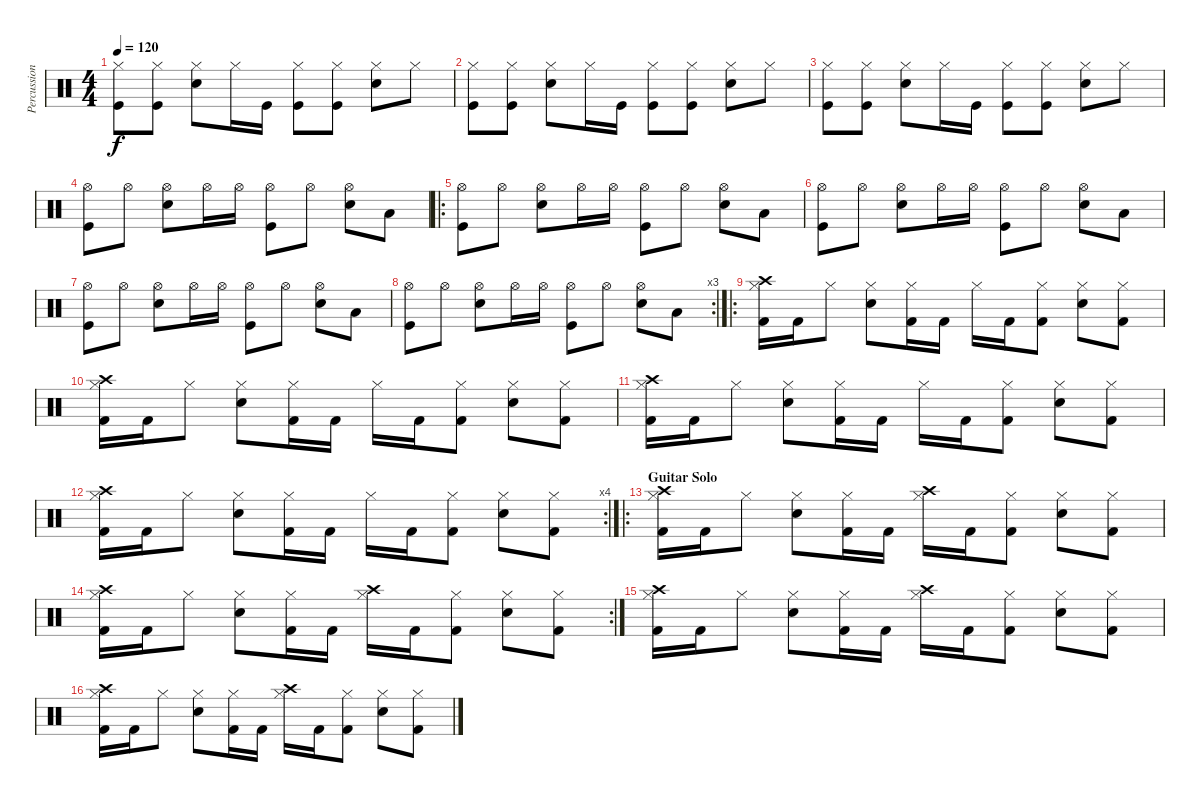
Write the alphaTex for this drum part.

\track ("Percussion" "Percussion") {instrument percussion}
\staff {score}
\articulation defaults
\ts (4 4)
\tempo 120
\clef neutral
\ks c
("Hi-Hat (closed)" "Kick (hit)").8{dy f} ("Hi-Hat (closed)" "Kick (hit)").8 ("Hi-Hat (closed)" "Snare (hit) 2").8 "Hi-Hat (closed)".16 "Kick (hit)".16 ("Hi-Hat (closed)" "Kick (hit)").8 ("Hi-Hat (closed)" "Kick (hit)").8 ("Hi-Hat (closed)" "Snare (hit) 2").8 "Hi-Hat (closed)".8 |
("Hi-Hat (closed)" "Kick (hit)").8 ("Hi-Hat (closed)" "Kick (hit)").8 ("Hi-Hat (closed)" "Snare (hit) 2").8 "Hi-Hat (closed)".16 "Kick (hit)".16 ("Hi-Hat (closed)" "Kick (hit)").8 ("Hi-Hat (closed)" "Kick (hit)").8 ("Hi-Hat (closed)" "Snare (hit) 2").8 "Hi-Hat (closed)".8 |
("Hi-Hat (closed)" "Kick (hit)").8 ("Hi-Hat (closed)" "Kick (hit)").8 ("Hi-Hat (closed)" "Snare (hit) 2").8 "Hi-Hat (closed)".16 "Kick (hit)".16 ("Hi-Hat (closed)" "Kick (hit)").8 ("Hi-Hat (closed)" "Kick (hit)").8 ("Hi-Hat (closed)" "Snare (hit) 2").8 "Hi-Hat (closed)".8 |
("Kick (hit)" "Hi-Hat (open)").8 "Hi-Hat (open)".8 ("Snare (hit) 2" "Hi-Hat (open)").8 "Hi-Hat (open)".16 "Hi-Hat (open)".16 ("Kick (hit)" "Hi-Hat (open)").8 "Hi-Hat (open)".8 ("Snare (hit) 2" "Hi-Hat (open)").8 "Low Tom (hit)".8 |
\ro
("Kick (hit)" "Hi-Hat (open)").8 "Hi-Hat (open)".8 ("Snare (hit) 2" "Hi-Hat (open)").8 "Hi-Hat (open)".16 "Hi-Hat (open)".16 ("Kick (hit)" "Hi-Hat (open)").8 "Hi-Hat (open)".8 ("Snare (hit) 2" "Hi-Hat (open)").8 "Low Tom (hit)".8 |
("Kick (hit)" "Hi-Hat (open)").8 "Hi-Hat (open)".8 ("Snare (hit) 2" "Hi-Hat (open)").8 "Hi-Hat (open)".16 "Hi-Hat (open)".16 ("Kick (hit)" "Hi-Hat (open)").8 "Hi-Hat (open)".8 ("Snare (hit) 2" "Hi-Hat (open)").8 "Low Tom (hit)".8 |
("Kick (hit)" "Hi-Hat (open)").8 "Hi-Hat (open)".8 ("Snare (hit) 2" "Hi-Hat (open)").8 "Hi-Hat (open)".16 "Hi-Hat (open)".16 ("Kick (hit)" "Hi-Hat (open)").8 "Hi-Hat (open)".8 ("Snare (hit) 2" "Hi-Hat (open)").8 "Low Tom (hit)".8 |
\rc 3
("Kick (hit)" "Hi-Hat (open)").8 "Hi-Hat (open)".8 ("Snare (hit) 2" "Hi-Hat (open)").8 "Hi-Hat (open)".16 "Hi-Hat (open)".16 ("Kick (hit)" "Hi-Hat (open)").8 "Hi-Hat (open)".8 ("Snare (hit) 2" "Hi-Hat (open)").8 "Low Tom (hit)".8 |
\ro
("Crash high (hit)" "Hi-Hat (closed)" "Kick (hit) 2").16 "Kick (hit) 2".16 "Hi-Hat (closed)".8 ("Hi-Hat (closed)" "Snare (hit) 2").8 ("Hi-Hat (closed)" "Kick (hit) 2").16 "Kick (hit) 2".16 "Hi-Hat (closed)".16 "Kick (hit) 2".16 ("Hi-Hat (closed)" "Kick (hit) 2").8 ("Hi-Hat (closed)" "Snare (hit) 2").8 ("Hi-Hat (closed)" "Kick (hit) 2").8 |
("Crash high (hit)" "Hi-Hat (closed)" "Kick (hit) 2").16 "Kick (hit) 2".16 "Hi-Hat (closed)".8 ("Hi-Hat (closed)" "Snare (hit) 2").8 ("Hi-Hat (closed)" "Kick (hit) 2").16 "Kick (hit) 2".16 "Hi-Hat (closed)".16 "Kick (hit) 2".16 ("Hi-Hat (closed)" "Kick (hit) 2").8 ("Hi-Hat (closed)" "Snare (hit) 2").8 ("Hi-Hat (closed)" "Kick (hit) 2").8 |
("Crash high (hit)" "Hi-Hat (closed)" "Kick (hit) 2").16 "Kick (hit) 2".16 "Hi-Hat (closed)".8 ("Hi-Hat (closed)" "Snare (hit) 2").8 ("Hi-Hat (closed)" "Kick (hit) 2").16 "Kick (hit) 2".16 "Hi-Hat (closed)".16 "Kick (hit) 2".16 ("Hi-Hat (closed)" "Kick (hit) 2").8 ("Hi-Hat (closed)" "Snare (hit) 2").8 ("Hi-Hat (closed)" "Kick (hit) 2").8 |
\rc 4
("Crash high (hit)" "Hi-Hat (closed)" "Kick (hit) 2").16 "Kick (hit) 2".16 "Hi-Hat (closed)".8 ("Hi-Hat (closed)" "Snare (hit) 2").8 ("Hi-Hat (closed)" "Kick (hit) 2").16 "Kick (hit) 2".16 "Hi-Hat (closed)".16 "Kick (hit) 2".16 ("Hi-Hat (closed)" "Kick (hit) 2").8 ("Hi-Hat (closed)" "Snare (hit) 2").8 ("Hi-Hat (closed)" "Kick (hit) 2").8 |
\ro
\section ("" "Guitar Solo")
("Crash high (hit)" "Hi-Hat (closed)" "Kick (hit) 2").16 "Kick (hit) 2".16 "Hi-Hat (closed)".8 ("Hi-Hat (closed)" "Snare (hit) 2").8 ("Hi-Hat (closed)" "Kick (hit) 2").16 "Kick (hit) 2".16 ("Crash high (hit)" "Hi-Hat (closed)").16 "Kick (hit) 2".16 ("Hi-Hat (closed)" "Kick (hit) 2").8 ("Hi-Hat (closed)" "Snare (hit) 2").8 ("Hi-Hat (closed)" "Kick (hit) 2").8 |
\rc 2
("Crash high (hit)" "Hi-Hat (closed)" "Kick (hit) 2").16 "Kick (hit) 2".16 "Hi-Hat (closed)".8 ("Hi-Hat (closed)" "Snare (hit) 2").8 ("Hi-Hat (closed)" "Kick (hit) 2").16 "Kick (hit) 2".16 ("Crash high (hit)" "Hi-Hat (closed)").16 "Kick (hit) 2".16 ("Hi-Hat (closed)" "Kick (hit) 2").8 ("Hi-Hat (closed)" "Snare (hit) 2").8 ("Hi-Hat (closed)" "Kick (hit) 2").8 |
("Crash high (hit)" "Hi-Hat (closed)" "Kick (hit) 2").16 "Kick (hit) 2".16 "Hi-Hat (closed)".8 ("Hi-Hat (closed)" "Snare (hit) 2").8 ("Hi-Hat (closed)" "Kick (hit) 2").16 "Kick (hit) 2".16 ("Crash high (hit)" "Hi-Hat (closed)").16 "Kick (hit) 2".16 ("Hi-Hat (closed)" "Kick (hit) 2").8 ("Hi-Hat (closed)" "Snare (hit) 2").8 ("Hi-Hat (closed)" "Kick (hit) 2").8 |
("Crash high (hit)" "Hi-Hat (closed)" "Kick (hit) 2").16 "Kick (hit) 2".16 "Hi-Hat (closed)".8 ("Hi-Hat (closed)" "Snare (hit) 2").8 ("Hi-Hat (closed)" "Kick (hit) 2").16 "Kick (hit) 2".16 ("Crash high (hit)" "Hi-Hat (closed)").16 "Kick (hit) 2".16 ("Hi-Hat (closed)" "Kick (hit) 2").8 ("Hi-Hat (closed)" "Snare (hit) 2").8 ("Hi-Hat (closed)" "Kick (hit) 2").8
